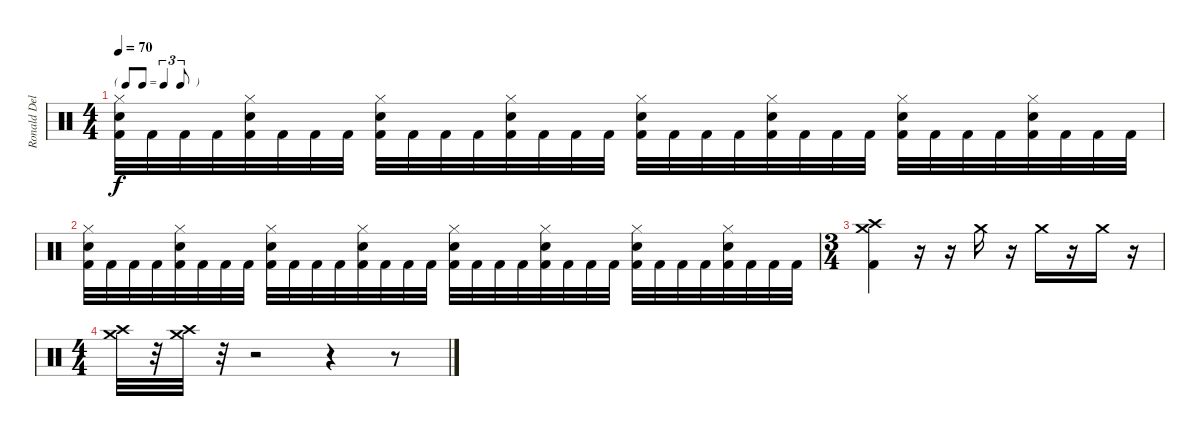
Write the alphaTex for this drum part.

\track ("Ronald Del Aguila (Bateria)" "Ronald Del") {instrument percussion}
\staff {score}
\articulation defaults
\ts (4 4)
\tf triplet8th
\tempo 70
\clef neutral
\ks c
("Hi-Hat (closed)" "Kick (hit) 2" "Snare (hit) 2").32{dy f} "Kick (hit) 2".32 "Kick (hit) 2".32 "Kick (hit) 2".32 ("Hi-Hat (closed)" "Kick (hit) 2" "Snare (hit) 2").32 "Kick (hit) 2".32 "Kick (hit) 2".32 "Kick (hit) 2".32 ("Hi-Hat (closed)" "Kick (hit) 2" "Snare (hit) 2").32 "Kick (hit) 2".32 "Kick (hit) 2".32 "Kick (hit) 2".32 ("Hi-Hat (closed)" "Kick (hit) 2" "Snare (hit) 2").32 "Kick (hit) 2".32 "Kick (hit) 2".32 "Kick (hit) 2".32 ("Hi-Hat (closed)" "Kick (hit) 2" "Snare (hit) 2").32 "Kick (hit) 2".32 "Kick (hit) 2".32 "Kick (hit) 2".32 ("Hi-Hat (closed)" "Kick (hit) 2" "Snare (hit) 2").32 "Kick (hit) 2".32 "Kick (hit) 2".32 "Kick (hit) 2".32 ("Hi-Hat (closed)" "Kick (hit) 2" "Snare (hit) 2").32 "Kick (hit) 2".32 "Kick (hit) 2".32 "Kick (hit) 2".32 ("Hi-Hat (closed)" "Kick (hit) 2" "Snare (hit) 2").32 "Kick (hit) 2".32 "Kick (hit) 2".32 "Kick (hit) 2".32 |
("Hi-Hat (closed)" "Kick (hit) 2" "Snare (hit) 2").32 "Kick (hit) 2".32 "Kick (hit) 2".32 "Kick (hit) 2".32 ("Hi-Hat (closed)" "Kick (hit) 2" "Snare (hit) 2").32 "Kick (hit) 2".32 "Kick (hit) 2".32 "Kick (hit) 2".32 ("Hi-Hat (closed)" "Kick (hit) 2" "Snare (hit) 2").32 "Kick (hit) 2".32 "Kick (hit) 2".32 "Kick (hit) 2".32 ("Hi-Hat (closed)" "Kick (hit) 2" "Snare (hit) 2").32 "Kick (hit) 2".32 "Kick (hit) 2".32 "Kick (hit) 2".32 ("Hi-Hat (closed)" "Kick (hit) 2" "Snare (hit) 2").32 "Kick (hit) 2".32 "Kick (hit) 2".32 "Kick (hit) 2".32 ("Hi-Hat (closed)" "Kick (hit) 2" "Snare (hit) 2").32 "Kick (hit) 2".32 "Kick (hit) 2".32 "Kick (hit) 2".32 ("Hi-Hat (closed)" "Kick (hit) 2" "Snare (hit) 2").32 "Kick (hit) 2".32 "Kick (hit) 2".32 "Kick (hit) 2".32 ("Hi-Hat (closed)" "Kick (hit) 2" "Snare (hit) 2").32 "Kick (hit) 2".32 "Kick (hit) 2".32 "Kick (hit) 2".32 |
\ts (3 4)
("Crash medium (hit)" "Crash high (hit)" "Kick (hit) 2").4 r.16 r.16 "Crash medium (hit)".16 r.16 "Crash medium (hit)".16 r.16 "Crash medium (hit)".16 r.16 |
\ts (4 4)
("Crash high (hit)" "Crash medium (hit)").32 r.32 ("Crash high (hit)" "Crash medium (hit)").32 r.32 r.2 r.4 r.8
